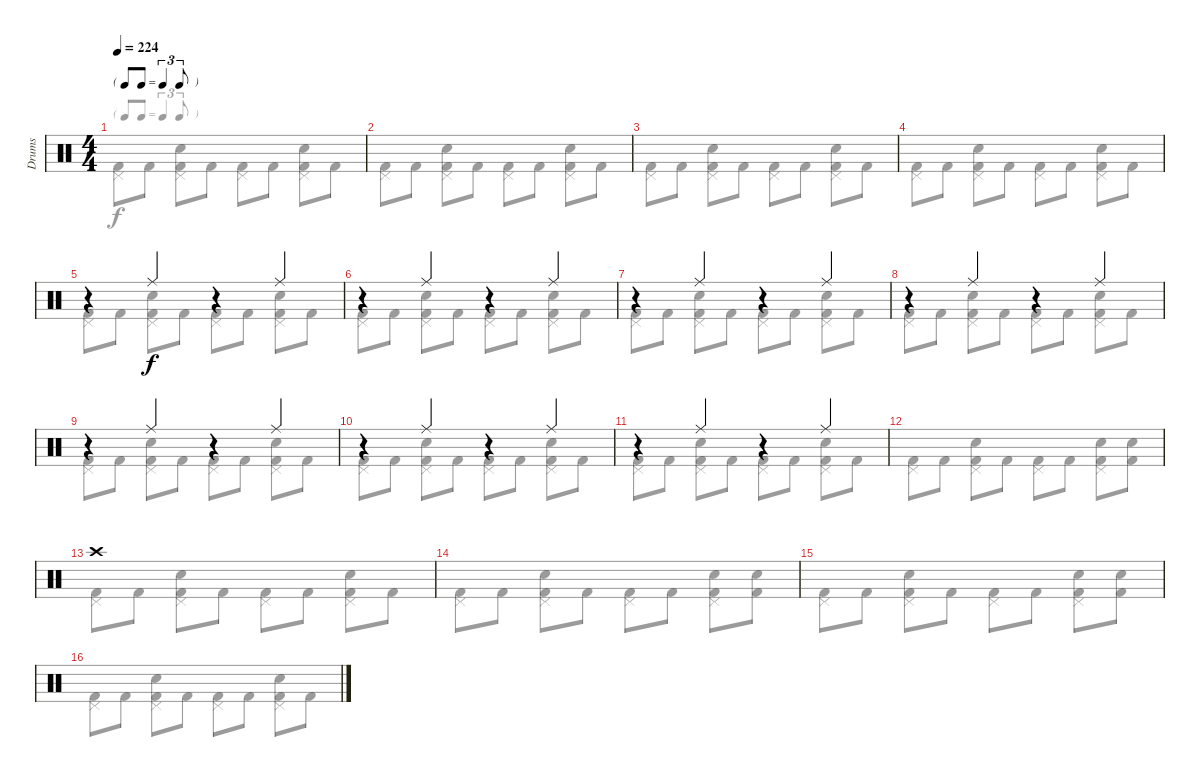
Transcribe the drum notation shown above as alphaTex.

\track ("Drums" "Drums") {instrument percussion}
\staff {score}
\articulation defaults
\voice
\ts (4 4)
\tf triplet8th
\tempo 224
\clef neutral
\ks c
|
|
|
|
r.4 "Ride (middle)".4 r.4 "Ride (middle)".4 |
r.4 "Ride (middle)".4 r.4 "Ride (middle)".4 |
r.4 "Ride (middle)".4 r.4 "Ride (middle)".4 |
r.4 "Ride (middle)".4 r.4 "Ride (middle)".4 |
r.4 "Ride (middle)".4 r.4 "Ride (middle)".4 |
r.4 "Ride (middle)".4 r.4 "Ride (middle)".4 |
r.4 "Ride (middle)".4 r.4 "Ride (middle)".4 |
|
"Crash high (hit)".1 |
|
|
\voice
\clef neutral
\ottava regular
\simile none
\ks c
("Kick (hit) 2" "Pedal Hi-Hat (hit)").8{dy f} "Kick (hit) 2".8 ("Electric Snare (hit)" "Kick (hit) 2" "Pedal Hi-Hat (hit)").8 "Kick (hit) 2".8 ("Kick (hit) 2" "Pedal Hi-Hat (hit)").8 "Kick (hit) 2".8 ("Electric Snare (hit)" "Kick (hit) 2" "Pedal Hi-Hat (hit)").8 "Kick (hit) 2".8 |
("Kick (hit) 2" "Pedal Hi-Hat (hit)").8 "Kick (hit) 2".8 ("Electric Snare (hit)" "Kick (hit) 2" "Pedal Hi-Hat (hit)").8 "Kick (hit) 2".8 ("Kick (hit) 2" "Pedal Hi-Hat (hit)").8 "Kick (hit) 2".8 ("Electric Snare (hit)" "Kick (hit) 2" "Pedal Hi-Hat (hit)").8 "Kick (hit) 2".8 |
("Kick (hit) 2" "Pedal Hi-Hat (hit)").8 "Kick (hit) 2".8 ("Electric Snare (hit)" "Kick (hit) 2" "Pedal Hi-Hat (hit)").8 "Kick (hit) 2".8 ("Kick (hit) 2" "Pedal Hi-Hat (hit)").8 "Kick (hit) 2".8 ("Electric Snare (hit)" "Kick (hit) 2" "Pedal Hi-Hat (hit)").8 "Kick (hit) 2".8 |
("Kick (hit) 2" "Pedal Hi-Hat (hit)").8 "Kick (hit) 2".8 ("Electric Snare (hit)" "Kick (hit) 2" "Pedal Hi-Hat (hit)").8 "Kick (hit) 2".8 ("Kick (hit) 2" "Pedal Hi-Hat (hit)").8 "Kick (hit) 2".8 ("Electric Snare (hit)" "Kick (hit) 2" "Pedal Hi-Hat (hit)").8 "Kick (hit) 2".8 |
("Kick (hit) 2" "Pedal Hi-Hat (hit)").8 "Kick (hit) 2".8 ("Electric Snare (hit)" "Kick (hit) 2" "Pedal Hi-Hat (hit)").8 "Kick (hit) 2".8 ("Kick (hit) 2" "Pedal Hi-Hat (hit)").8 "Kick (hit) 2".8 ("Electric Snare (hit)" "Kick (hit) 2" "Pedal Hi-Hat (hit)").8 "Kick (hit) 2".8 |
("Kick (hit) 2" "Pedal Hi-Hat (hit)").8 "Kick (hit) 2".8 ("Electric Snare (hit)" "Kick (hit) 2" "Pedal Hi-Hat (hit)").8 "Kick (hit) 2".8 ("Kick (hit) 2" "Pedal Hi-Hat (hit)").8 "Kick (hit) 2".8 ("Electric Snare (hit)" "Kick (hit) 2" "Pedal Hi-Hat (hit)").8 "Kick (hit) 2".8 |
("Kick (hit) 2" "Pedal Hi-Hat (hit)").8 "Kick (hit) 2".8 ("Electric Snare (hit)" "Kick (hit) 2" "Pedal Hi-Hat (hit)").8 "Kick (hit) 2".8 ("Kick (hit) 2" "Pedal Hi-Hat (hit)").8 "Kick (hit) 2".8 ("Electric Snare (hit)" "Kick (hit) 2" "Pedal Hi-Hat (hit)").8 "Kick (hit) 2".8 |
("Kick (hit) 2" "Pedal Hi-Hat (hit)").8 "Kick (hit) 2".8 ("Electric Snare (hit)" "Kick (hit) 2" "Pedal Hi-Hat (hit)").8 "Kick (hit) 2".8 ("Kick (hit) 2" "Pedal Hi-Hat (hit)").8 "Kick (hit) 2".8 ("Electric Snare (hit)" "Kick (hit) 2" "Pedal Hi-Hat (hit)").8 "Kick (hit) 2".8 |
("Kick (hit) 2" "Pedal Hi-Hat (hit)").8 "Kick (hit) 2".8 ("Electric Snare (hit)" "Kick (hit) 2" "Pedal Hi-Hat (hit)").8 "Kick (hit) 2".8 ("Kick (hit) 2" "Pedal Hi-Hat (hit)").8 "Kick (hit) 2".8 ("Electric Snare (hit)" "Kick (hit) 2" "Pedal Hi-Hat (hit)").8 "Kick (hit) 2".8 |
("Kick (hit) 2" "Pedal Hi-Hat (hit)").8 "Kick (hit) 2".8 ("Electric Snare (hit)" "Kick (hit) 2" "Pedal Hi-Hat (hit)").8 "Kick (hit) 2".8 ("Kick (hit) 2" "Pedal Hi-Hat (hit)").8 "Kick (hit) 2".8 ("Electric Snare (hit)" "Kick (hit) 2" "Pedal Hi-Hat (hit)").8 "Kick (hit) 2".8 |
("Kick (hit) 2" "Pedal Hi-Hat (hit)").8 "Kick (hit) 2".8 ("Electric Snare (hit)" "Kick (hit) 2" "Pedal Hi-Hat (hit)").8 "Kick (hit) 2".8 ("Kick (hit) 2" "Pedal Hi-Hat (hit)").8 "Kick (hit) 2".8 ("Electric Snare (hit)" "Kick (hit) 2" "Pedal Hi-Hat (hit)").8 "Kick (hit) 2".8 |
("Kick (hit) 2" "Pedal Hi-Hat (hit)").8 "Kick (hit) 2".8 ("Electric Snare (hit)" "Kick (hit) 2" "Pedal Hi-Hat (hit)").8 "Kick (hit) 2".8 ("Kick (hit) 2" "Pedal Hi-Hat (hit)").8 "Kick (hit) 2".8 ("Electric Snare (hit)" "Kick (hit) 2" "Pedal Hi-Hat (hit)").8 ("Electric Snare (hit)" "Kick (hit) 2").8 |
("Kick (hit) 2" "Pedal Hi-Hat (hit)").8 "Kick (hit) 2".8 ("Electric Snare (hit)" "Kick (hit) 2" "Pedal Hi-Hat (hit)").8 "Kick (hit) 2".8 ("Kick (hit) 2" "Pedal Hi-Hat (hit)").8 "Kick (hit) 2".8 ("Electric Snare (hit)" "Kick (hit) 2" "Pedal Hi-Hat (hit)").8 "Kick (hit) 2".8 |
("Kick (hit) 2" "Pedal Hi-Hat (hit)").8 "Kick (hit) 2".8 ("Electric Snare (hit)" "Kick (hit) 2" "Pedal Hi-Hat (hit)").8 "Kick (hit) 2".8 ("Kick (hit) 2" "Pedal Hi-Hat (hit)").8 "Kick (hit) 2".8 ("Electric Snare (hit)" "Kick (hit) 2" "Pedal Hi-Hat (hit)").8 ("Electric Snare (hit)" "Kick (hit) 2").8 |
("Kick (hit) 2" "Pedal Hi-Hat (hit)").8 "Kick (hit) 2".8 ("Electric Snare (hit)" "Kick (hit) 2" "Pedal Hi-Hat (hit)").8 "Kick (hit) 2".8 ("Kick (hit) 2" "Pedal Hi-Hat (hit)").8 "Kick (hit) 2".8 ("Electric Snare (hit)" "Kick (hit) 2" "Pedal Hi-Hat (hit)").8 ("Electric Snare (hit)" "Kick (hit) 2").8 |
("Kick (hit) 2" "Pedal Hi-Hat (hit)").8 "Kick (hit) 2".8 ("Electric Snare (hit)" "Kick (hit) 2" "Pedal Hi-Hat (hit)").8 "Kick (hit) 2".8 ("Kick (hit) 2" "Pedal Hi-Hat (hit)").8 "Kick (hit) 2".8 ("Electric Snare (hit)" "Kick (hit) 2" "Pedal Hi-Hat (hit)").8 "Kick (hit) 2".8
